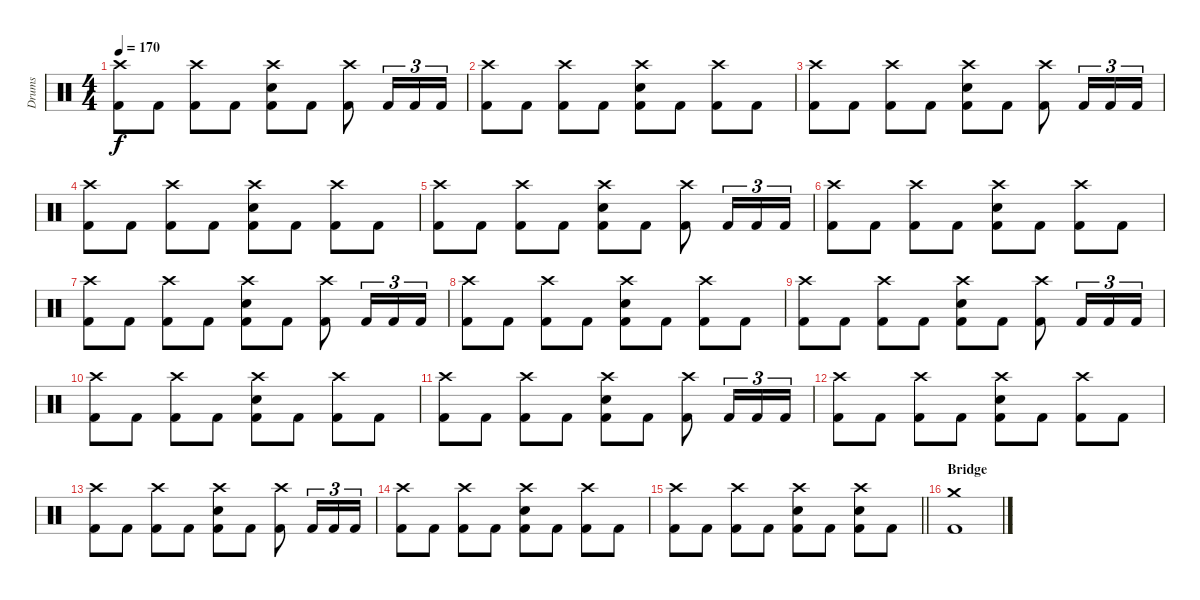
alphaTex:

\track ("Drums" "Drums") {instrument percussion}
\staff {score}
\articulation defaults
\ts (4 4)
\tempo 170
\clef neutral
\ks c
("Crash high (hit)" "Kick (hit) 2").8{dy f} "Kick (hit) 2".8 ("Crash high (hit)" "Kick (hit) 2").8 "Kick (hit) 2".8 ("Crash high (hit)" "Snare (hit) 2" "Kick (hit) 2").8 "Kick (hit) 2".8 ("Crash high (hit)" "Kick (hit) 2").8 "Kick (hit) 2".16{tu (3 2)} "Kick (hit) 2".16{tu (3 2)} "Kick (hit) 2".16{tu (3 2)} |
("Crash high (hit)" "Kick (hit) 2").8 "Kick (hit) 2".8 ("Crash high (hit)" "Kick (hit) 2").8 "Kick (hit) 2".8 ("Crash high (hit)" "Snare (hit) 2" "Kick (hit) 2").8 "Kick (hit) 2".8 ("Crash high (hit)" "Kick (hit) 2").8 "Kick (hit) 2".8 |
("Crash high (hit)" "Kick (hit) 2").8 "Kick (hit) 2".8 ("Crash high (hit)" "Kick (hit) 2").8 "Kick (hit) 2".8 ("Crash high (hit)" "Snare (hit) 2" "Kick (hit) 2").8 "Kick (hit) 2".8 ("Crash high (hit)" "Kick (hit) 2").8 "Kick (hit) 2".16{tu (3 2)} "Kick (hit) 2".16{tu (3 2)} "Kick (hit) 2".16{tu (3 2)} |
("Crash high (hit)" "Kick (hit) 2").8 "Kick (hit) 2".8 ("Crash high (hit)" "Kick (hit) 2").8 "Kick (hit) 2".8 ("Crash high (hit)" "Snare (hit) 2" "Kick (hit) 2").8 "Kick (hit) 2".8 ("Crash high (hit)" "Kick (hit) 2").8 "Kick (hit) 2".8 |
("Crash high (hit)" "Kick (hit) 2").8 "Kick (hit) 2".8 ("Crash high (hit)" "Kick (hit) 2").8 "Kick (hit) 2".8 ("Crash high (hit)" "Snare (hit) 2" "Kick (hit) 2").8 "Kick (hit) 2".8 ("Crash high (hit)" "Kick (hit) 2").8 "Kick (hit) 2".16{tu (3 2)} "Kick (hit) 2".16{tu (3 2)} "Kick (hit) 2".16{tu (3 2)} |
("Crash high (hit)" "Kick (hit) 2").8 "Kick (hit) 2".8 ("Crash high (hit)" "Kick (hit) 2").8 "Kick (hit) 2".8 ("Crash high (hit)" "Snare (hit) 2" "Kick (hit) 2").8 "Kick (hit) 2".8 ("Crash high (hit)" "Kick (hit) 2").8 "Kick (hit) 2".8 |
("Crash high (hit)" "Kick (hit) 2").8 "Kick (hit) 2".8 ("Crash high (hit)" "Kick (hit) 2").8 "Kick (hit) 2".8 ("Crash high (hit)" "Snare (hit) 2" "Kick (hit) 2").8 "Kick (hit) 2".8 ("Crash high (hit)" "Kick (hit) 2").8 "Kick (hit) 2".16{tu (3 2)} "Kick (hit) 2".16{tu (3 2)} "Kick (hit) 2".16{tu (3 2)} |
("Crash high (hit)" "Kick (hit) 2").8 "Kick (hit) 2".8 ("Crash high (hit)" "Kick (hit) 2").8 "Kick (hit) 2".8 ("Crash high (hit)" "Snare (hit) 2" "Kick (hit) 2").8 "Kick (hit) 2".8 ("Crash high (hit)" "Kick (hit) 2").8 "Kick (hit) 2".8 |
("Crash high (hit)" "Kick (hit) 2").8 "Kick (hit) 2".8 ("Crash high (hit)" "Kick (hit) 2").8 "Kick (hit) 2".8 ("Crash high (hit)" "Snare (hit) 2" "Kick (hit) 2").8 "Kick (hit) 2".8 ("Crash high (hit)" "Kick (hit) 2").8 "Kick (hit) 2".16{tu (3 2)} "Kick (hit) 2".16{tu (3 2)} "Kick (hit) 2".16{tu (3 2)} |
("Crash high (hit)" "Kick (hit) 2").8 "Kick (hit) 2".8 ("Crash high (hit)" "Kick (hit) 2").8 "Kick (hit) 2".8 ("Crash high (hit)" "Snare (hit) 2" "Kick (hit) 2").8 "Kick (hit) 2".8 ("Crash high (hit)" "Kick (hit) 2").8 "Kick (hit) 2".8 |
("Crash high (hit)" "Kick (hit) 2").8 "Kick (hit) 2".8 ("Crash high (hit)" "Kick (hit) 2").8 "Kick (hit) 2".8 ("Crash high (hit)" "Snare (hit) 2" "Kick (hit) 2").8 "Kick (hit) 2".8 ("Crash high (hit)" "Kick (hit) 2").8 "Kick (hit) 2".16{tu (3 2)} "Kick (hit) 2".16{tu (3 2)} "Kick (hit) 2".16{tu (3 2)} |
("Crash high (hit)" "Kick (hit) 2").8 "Kick (hit) 2".8 ("Crash high (hit)" "Kick (hit) 2").8 "Kick (hit) 2".8 ("Crash high (hit)" "Snare (hit) 2" "Kick (hit) 2").8 "Kick (hit) 2".8 ("Crash high (hit)" "Kick (hit) 2").8 "Kick (hit) 2".8 |
("Crash high (hit)" "Kick (hit) 2").8 "Kick (hit) 2".8 ("Crash high (hit)" "Kick (hit) 2").8 "Kick (hit) 2".8 ("Crash high (hit)" "Snare (hit) 2" "Kick (hit) 2").8 "Kick (hit) 2".8 ("Crash high (hit)" "Kick (hit) 2").8 "Kick (hit) 2".16{tu (3 2)} "Kick (hit) 2".16{tu (3 2)} "Kick (hit) 2".16{tu (3 2)} |
("Crash high (hit)" "Kick (hit) 2").8 "Kick (hit) 2".8 ("Crash high (hit)" "Kick (hit) 2").8 "Kick (hit) 2".8 ("Crash high (hit)" "Snare (hit) 2" "Kick (hit) 2").8 "Kick (hit) 2".8 ("Crash high (hit)" "Kick (hit) 2").8 "Kick (hit) 2".8 |
\barLineRight lightlight
("Crash high (hit)" "Kick (hit) 2").8 "Kick (hit) 2".8 ("Crash high (hit)" "Kick (hit) 2").8 "Kick (hit) 2".8 ("Crash high (hit)" "Snare (hit) 2" "Kick (hit) 2").8 "Kick (hit) 2".8 ("Crash high (hit)" "Snare (hit) 2" "Kick (hit) 2").8 "Kick (hit) 2".8 |
\section ("" "Bridge")
("Crash medium (hit)" "Kick (hit) 2").1
